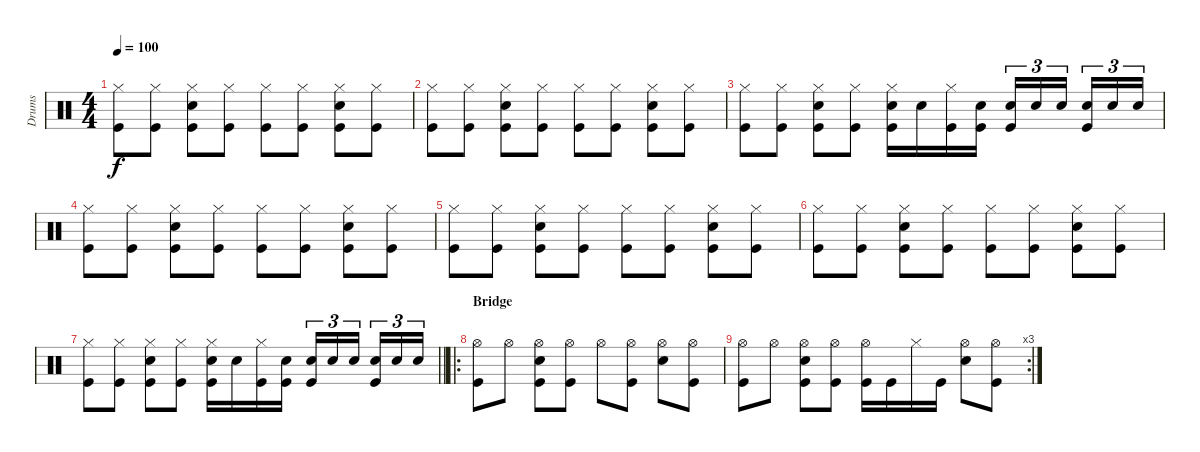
\track ("Drums" "Drums") {instrument percussion}
\staff {score}
\articulation defaults
\ts (4 4)
\tempo 100
\clef neutral
\ks c
("Hi-Hat (closed)" "Kick (hit)").8{dy f} ("Hi-Hat (closed)" "Kick (hit)").8 ("Snare (hit) 2" "Hi-Hat (closed)" "Kick (hit)").8 ("Hi-Hat (closed)" "Kick (hit)").8 ("Hi-Hat (closed)" "Kick (hit)").8 ("Hi-Hat (closed)" "Kick (hit)").8 ("Snare (hit) 2" "Hi-Hat (closed)" "Kick (hit)").8 ("Hi-Hat (closed)" "Kick (hit)").8 |
("Hi-Hat (closed)" "Kick (hit)").8 ("Hi-Hat (closed)" "Kick (hit)").8 ("Snare (hit) 2" "Hi-Hat (closed)" "Kick (hit)").8 ("Hi-Hat (closed)" "Kick (hit)").8 ("Hi-Hat (closed)" "Kick (hit)").8 ("Hi-Hat (closed)" "Kick (hit)").8 ("Snare (hit) 2" "Hi-Hat (closed)" "Kick (hit)").8 ("Hi-Hat (closed)" "Kick (hit)").8 |
("Hi-Hat (closed)" "Kick (hit)").8 ("Hi-Hat (closed)" "Kick (hit)").8 ("Snare (hit) 2" "Hi-Hat (closed)" "Kick (hit)").8 ("Hi-Hat (closed)" "Kick (hit)").8 ("Snare (hit) 2" "Hi-Hat (closed)" "Kick (hit)").16 "Snare (hit) 2".16 ("Hi-Hat (closed)" "Kick (hit)").16 ("Snare (hit) 2" "Kick (hit)").16 ("Snare (hit) 2" "Kick (hit)").16{tu (3 2)} "Snare (hit) 2".16{tu (3 2)} "Snare (hit) 2".16{tu (3 2) beam splitsecondary} ("Snare (hit) 2" "Kick (hit)").16{tu (3 2)} "Snare (hit) 2".16{tu (3 2)} "Snare (hit) 2".16{tu (3 2)} |
("Hi-Hat (closed)" "Kick (hit)").8 ("Hi-Hat (closed)" "Kick (hit)").8 ("Snare (hit) 2" "Hi-Hat (closed)" "Kick (hit)").8 ("Hi-Hat (closed)" "Kick (hit)").8 ("Hi-Hat (closed)" "Kick (hit)").8 ("Hi-Hat (closed)" "Kick (hit)").8 ("Snare (hit) 2" "Hi-Hat (closed)" "Kick (hit)").8 ("Hi-Hat (closed)" "Kick (hit)").8 |
("Hi-Hat (closed)" "Kick (hit)").8 ("Hi-Hat (closed)" "Kick (hit)").8 ("Snare (hit) 2" "Hi-Hat (closed)" "Kick (hit)").8 ("Hi-Hat (closed)" "Kick (hit)").8 ("Hi-Hat (closed)" "Kick (hit)").8 ("Hi-Hat (closed)" "Kick (hit)").8 ("Snare (hit) 2" "Hi-Hat (closed)" "Kick (hit)").8 ("Hi-Hat (closed)" "Kick (hit)").8 |
("Hi-Hat (closed)" "Kick (hit)").8 ("Hi-Hat (closed)" "Kick (hit)").8 ("Snare (hit) 2" "Hi-Hat (closed)" "Kick (hit)").8 ("Hi-Hat (closed)" "Kick (hit)").8 ("Hi-Hat (closed)" "Kick (hit)").8 ("Hi-Hat (closed)" "Kick (hit)").8 ("Snare (hit) 2" "Hi-Hat (closed)" "Kick (hit)").8 ("Hi-Hat (closed)" "Kick (hit)").8 |
\barLineRight lightlight
("Hi-Hat (closed)" "Kick (hit)").8 ("Hi-Hat (closed)" "Kick (hit)").8 ("Snare (hit) 2" "Hi-Hat (closed)" "Kick (hit)").8 ("Hi-Hat (closed)" "Kick (hit)").8 ("Snare (hit) 2" "Hi-Hat (closed)" "Kick (hit)").16 "Snare (hit) 2".16 ("Hi-Hat (closed)" "Kick (hit)").16 ("Snare (hit) 2" "Kick (hit)").16 ("Snare (hit) 2" "Kick (hit)").16{tu (3 2)} "Snare (hit) 2".16{tu (3 2)} "Snare (hit) 2".16{tu (3 2) beam splitsecondary} ("Snare (hit) 2" "Kick (hit)").16{tu (3 2)} "Snare (hit) 2".16{tu (3 2)} "Snare (hit) 2".16{tu (3 2)} |
\ro
\section ("" "Bridge")
("Hi-Hat (open)" "Kick (hit)").8 "Hi-Hat (open)".8 ("Snare (hit) 2" "Hi-Hat (open)" "Kick (hit)").8 ("Hi-Hat (open)" "Kick (hit)").8 "Hi-Hat (open)".8 ("Hi-Hat (open)" "Kick (hit)").8 ("Snare (hit) 2" "Hi-Hat (open)").8 ("Hi-Hat (open)" "Kick (hit)").8 |
\rc 3
("Hi-Hat (open)" "Kick (hit)").8 "Hi-Hat (open)".8 ("Snare (hit) 2" "Hi-Hat (open)" "Kick (hit)").8 ("Hi-Hat (open)" "Kick (hit)").8 ("Hi-Hat (open)" "Kick (hit)").16 "Kick (hit)".16 "Hi-Hat (closed)".16 "Kick (hit)".16 ("Snare (hit) 2" "Hi-Hat (open)").8 ("Hi-Hat (open)" "Kick (hit)").8
